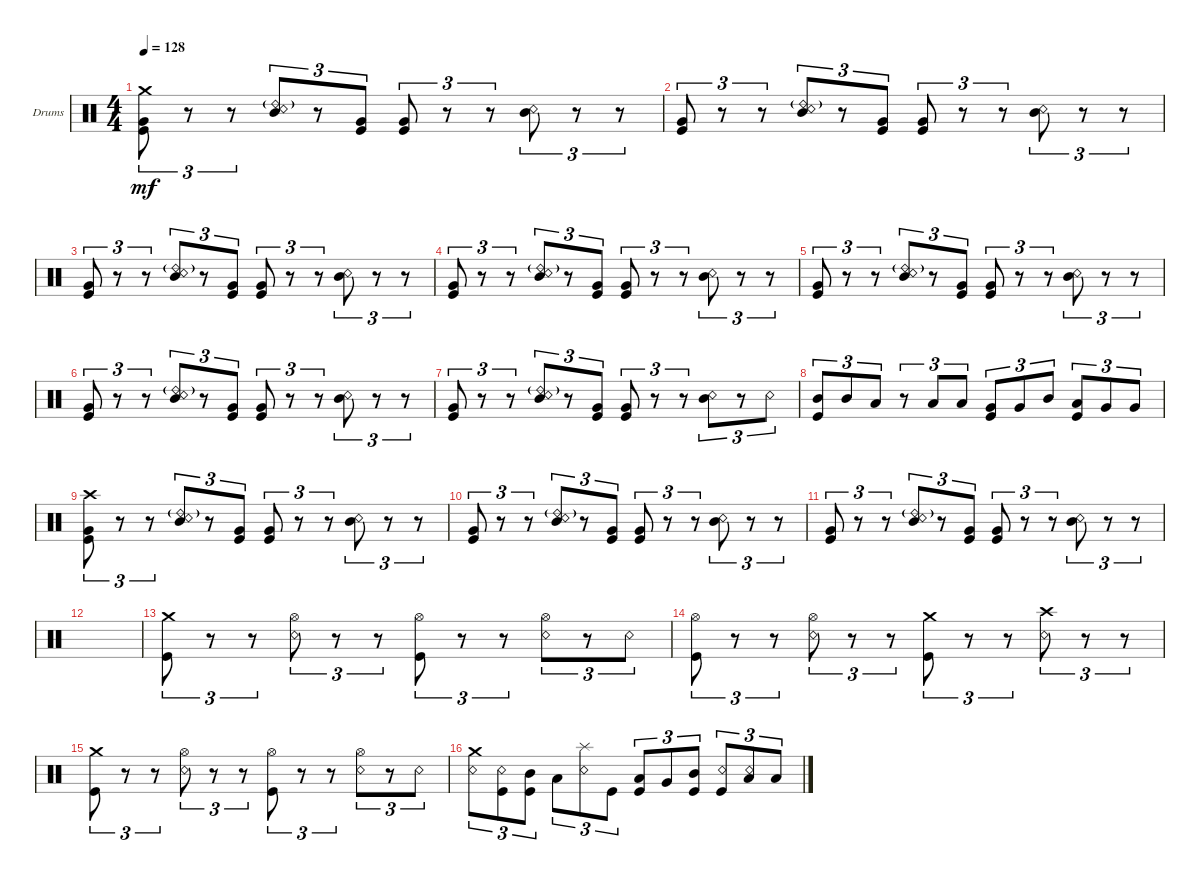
\defaultSystemsLayout 4
\bracketExtendMode groupsimilarinstruments
\firstSystemTrackNameOrientation horizontal
\otherSystemsTrackNameOrientation horizontal
\track ("Drumkit" "Drums") {instrument percussion}
\staff {score}
\articulation defaults
\ts (4 4)
\tempo 128
\clef neutral
\ks c
("Kick (hit)" "Very Low Tom (hit)" "Crash medium (hit)").8{tu (3 2) dy mf} r.8{tu (3 2)} r.8{tu (3 2)} ("Snare (rim shot)" "Mid Tom (hit)" "Ride (bell) 2"{g}).8{tu (3 2)} r.8{tu (3 2)} ("Kick (hit)" "Very Low Tom (hit)").8{tu (3 2)} ("Kick (hit)" "Very Low Tom (hit)").8{tu (3 2)} r.8{tu (3 2)} r.8{tu (3 2)} ("Snare (rim shot)" "Mid Tom (hit)").8{tu (3 2)} r.8{tu (3 2)} r.8{tu (3 2)} |
("Kick (hit)" "Very Low Tom (hit)").8{tu (3 2)} r.8{tu (3 2)} r.8{tu (3 2)} ("Snare (rim shot)" "Mid Tom (hit)" "Ride (bell) 2"{g}).8{tu (3 2)} r.8{tu (3 2)} ("Kick (hit)" "Very Low Tom (hit)").8{tu (3 2)} ("Kick (hit)" "Very Low Tom (hit)").8{tu (3 2)} r.8{tu (3 2)} r.8{tu (3 2)} ("Snare (rim shot)" "Mid Tom (hit)").8{tu (3 2)} r.8{tu (3 2)} r.8{tu (3 2)} |
("Kick (hit)" "Very Low Tom (hit)").8{tu (3 2)} r.8{tu (3 2)} r.8{tu (3 2)} ("Snare (rim shot)" "Mid Tom (hit)" "Ride (bell) 2"{g}).8{tu (3 2)} r.8{tu (3 2)} ("Kick (hit)" "Very Low Tom (hit)").8{tu (3 2)} ("Kick (hit)" "Very Low Tom (hit)").8{tu (3 2)} r.8{tu (3 2)} r.8{tu (3 2)} ("Snare (rim shot)" "Mid Tom (hit)").8{tu (3 2)} r.8{tu (3 2)} r.8{tu (3 2)} |
("Kick (hit)" "Very Low Tom (hit)").8{tu (3 2)} r.8{tu (3 2)} r.8{tu (3 2)} ("Snare (rim shot)" "Mid Tom (hit)" "Ride (bell) 2"{g}).8{tu (3 2)} r.8{tu (3 2)} ("Kick (hit)" "Very Low Tom (hit)").8{tu (3 2)} ("Kick (hit)" "Very Low Tom (hit)").8{tu (3 2)} r.8{tu (3 2)} r.8{tu (3 2)} ("Snare (rim shot)" "Mid Tom (hit)").8{tu (3 2)} r.8{tu (3 2)} r.8{tu (3 2)} |
("Kick (hit)" "Very Low Tom (hit)").8{tu (3 2)} r.8{tu (3 2)} r.8{tu (3 2)} ("Snare (rim shot)" "Mid Tom (hit)" "Ride (bell) 2"{g}).8{tu (3 2)} r.8{tu (3 2)} ("Kick (hit)" "Very Low Tom (hit)").8{tu (3 2)} ("Kick (hit)" "Very Low Tom (hit)").8{tu (3 2)} r.8{tu (3 2)} r.8{tu (3 2)} ("Snare (rim shot)" "Mid Tom (hit)").8{tu (3 2)} r.8{tu (3 2)} r.8{tu (3 2)} |
("Kick (hit)" "Very Low Tom (hit)").8{tu (3 2)} r.8{tu (3 2)} r.8{tu (3 2)} ("Snare (rim shot)" "Mid Tom (hit)" "Ride (bell) 2"{g}).8{tu (3 2)} r.8{tu (3 2)} ("Kick (hit)" "Very Low Tom (hit)").8{tu (3 2)} ("Kick (hit)" "Very Low Tom (hit)").8{tu (3 2)} r.8{tu (3 2)} r.8{tu (3 2)} ("Snare (rim shot)" "Mid Tom (hit)").8{tu (3 2)} r.8{tu (3 2)} r.8{tu (3 2)} |
("Kick (hit)" "Very Low Tom (hit)").8{tu (3 2)} r.8{tu (3 2)} r.8{tu (3 2)} ("Snare (rim shot)" "Mid Tom (hit)" "Ride (bell) 2"{g}).8{tu (3 2)} r.8{tu (3 2)} ("Kick (hit)" "Very Low Tom (hit)").8{tu (3 2)} ("Kick (hit)" "Very Low Tom (hit)").8{tu (3 2)} r.8{tu (3 2)} r.8{tu (3 2)} ("Snare (rim shot)" "Mid Tom (hit)").8{tu (3 2)} r.8{tu (3 2)} "Snare (rim shot)".8{tu (3 2)} |
("Mid Tom (hit)" "Kick (hit)").8{tu (3 2)} "Mid Tom (hit)".8{tu (3 2)} "Low Tom (hit)".8{tu (3 2)} r.8{tu (3 2)} "Low Tom (hit)".8{tu (3 2)} "Low Tom (hit)".8{tu (3 2)} ("Very Low Tom (hit)" "Kick (hit)").8{tu (3 2)} "Very Low Tom (hit)".8{tu (3 2)} "Mid Tom (hit)".8{tu (3 2)} ("Low Tom (hit)" "Kick (hit)").8{tu (3 2)} "Very Low Tom (hit)".8{tu (3 2)} "Very Low Tom (hit)".8{tu (3 2)} |
("Kick (hit)" "Very Low Tom (hit)" "Crash high (hit)").8{tu (3 2)} r.8{tu (3 2)} r.8{tu (3 2)} ("Snare (rim shot)" "Mid Tom (hit)" "Ride (bell) 2"{g}).8{tu (3 2)} r.8{tu (3 2)} ("Kick (hit)" "Very Low Tom (hit)").8{tu (3 2)} ("Kick (hit)" "Very Low Tom (hit)").8{tu (3 2)} r.8{tu (3 2)} r.8{tu (3 2)} ("Snare (rim shot)" "Mid Tom (hit)").8{tu (3 2)} r.8{tu (3 2)} r.8{tu (3 2)} |
("Kick (hit)" "Very Low Tom (hit)").8{tu (3 2)} r.8{tu (3 2)} r.8{tu (3 2)} ("Snare (rim shot)" "Mid Tom (hit)" "Ride (bell) 2"{g}).8{tu (3 2)} r.8{tu (3 2)} ("Kick (hit)" "Very Low Tom (hit)").8{tu (3 2)} ("Kick (hit)" "Very Low Tom (hit)").8{tu (3 2)} r.8{tu (3 2)} r.8{tu (3 2)} ("Snare (rim shot)" "Mid Tom (hit)").8{tu (3 2)} r.8{tu (3 2)} r.8{tu (3 2)} |
("Kick (hit)" "Very Low Tom (hit)").8{tu (3 2)} r.8{tu (3 2)} r.8{tu (3 2)} ("Snare (rim shot)" "Mid Tom (hit)" "Ride (bell) 2"{g}).8{tu (3 2)} r.8{tu (3 2)} ("Kick (hit)" "Very Low Tom (hit)").8{tu (3 2)} ("Kick (hit)" "Very Low Tom (hit)").8{tu (3 2)} r.8{tu (3 2)} r.8{tu (3 2)} ("Snare (rim shot)" "Mid Tom (hit)").8{tu (3 2)} r.8{tu (3 2)} r.8{tu (3 2)} |
|
("Kick (hit)" "Crash medium (hit)").8{tu (3 2)} r.8{tu (3 2)} r.8{tu (3 2)} ("Snare (rim shot)" "Hi-Hat (open)").8{tu (3 2)} r.8{tu (3 2)} r.8{tu (3 2)} ("Kick (hit)" "Hi-Hat (open)").8{tu (3 2)} r.8{tu (3 2)} r.8{tu (3 2)} ("Snare (rim shot)" "Hi-Hat (open)").8{tu (3 2)} r.8{tu (3 2)} "Snare (rim shot)".8{tu (3 2)} |
("Kick (hit)" "Hi-Hat (open)").8{tu (3 2)} r.8{tu (3 2)} r.8{tu (3 2)} ("Snare (rim shot)" "Hi-Hat (open)").8{tu (3 2)} r.8{tu (3 2)} r.8{tu (3 2)} ("Kick (hit)" "Crash medium (hit)").8{tu (3 2)} r.8{tu (3 2)} r.8{tu (3 2)} ("Snare (rim shot)" "Crash high (hit)").8{tu (3 2)} r.8{tu (3 2)} r.8{tu (3 2)} |
("Kick (hit)" "Crash medium (hit)").8{tu (3 2)} r.8{tu (3 2)} r.8{tu (3 2)} ("Snare (rim shot)" "Hi-Hat (open)").8{tu (3 2)} r.8{tu (3 2)} r.8{tu (3 2)} ("Kick (hit)" "Hi-Hat (open)").8{tu (3 2)} r.8{tu (3 2)} r.8{tu (3 2)} ("Snare (rim shot)" "Hi-Hat (open)").8{tu (3 2)} r.8{tu (3 2)} "Snare (rim shot)".8{tu (3 2)} |
("Snare (rim shot)" "Crash medium (hit)").8{tu (3 2)} ("Snare (rim shot)" "Kick (hit)").8{tu (3 2)} ("Mid Tom (hit)" "Kick (hit)").8{tu (3 2)} "Low Tom (hit)".8{tu (3 2)} ("Snare (rim shot)" "Splash (hit)").8{tu (3 2)} "Kick (hit)".8{tu (3 2)} ("Low Tom (hit)" "Kick (hit)").8{tu (3 2)} "Very Low Tom (hit)".8{tu (3 2)} ("Mid Tom (hit)" "Kick (hit)").8{tu (3 2)} ("Snare (rim shot)" "Kick (hit)").8{tu (3 2)} ("Snare (rim shot)" "Low Tom (hit)").8{tu (3 2)} "Low Tom (hit)".8{tu (3 2)}
